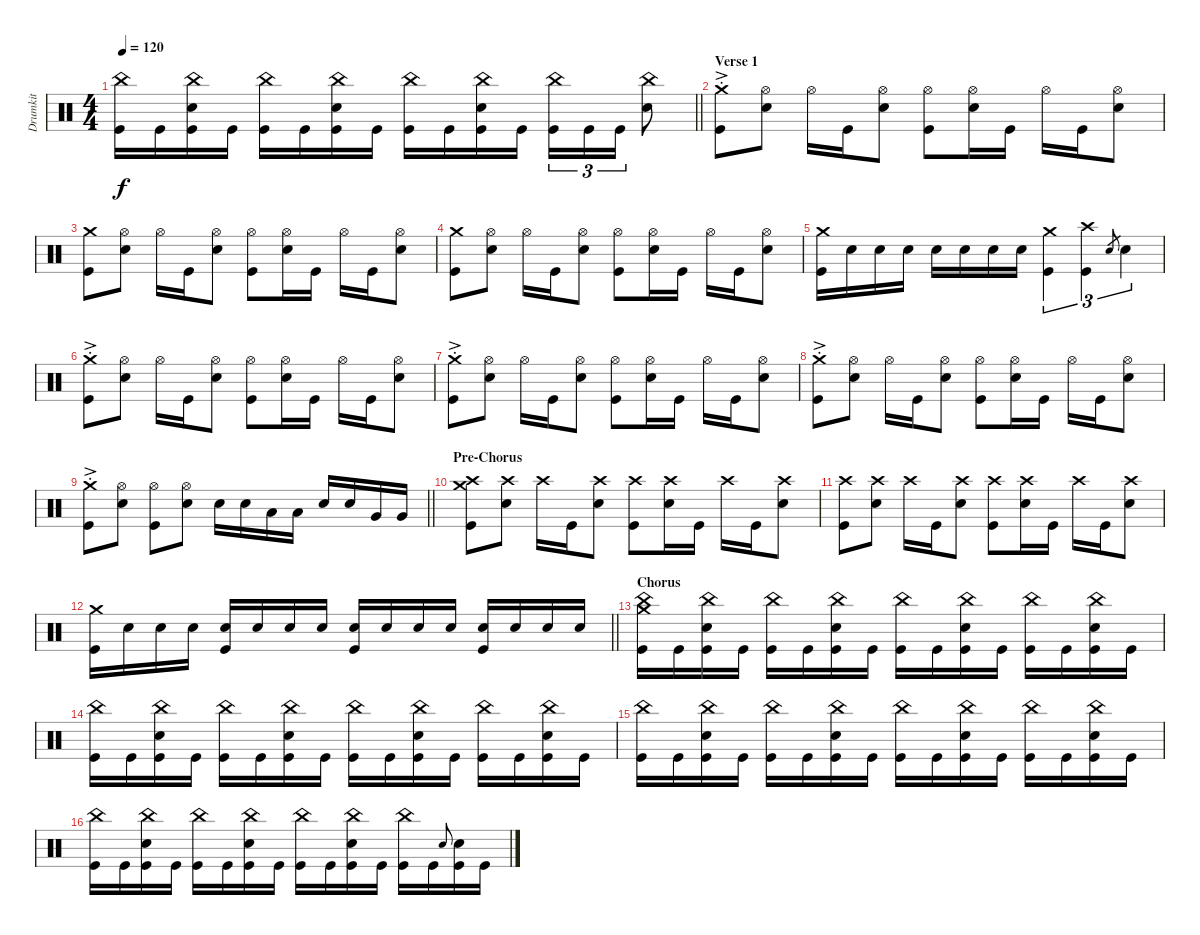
\track ("Drumkit" "Drumkit") {instrument percussion}
\staff {score}
\articulation defaults
\ts (4 4)
\tempo 120
\clef neutral
\barLineRight lightlight
\ks c
("China (hit)" "Kick (hit)").16{dy f} "Kick (hit)".16 ("Kick (hit)" "Snare (hit) 2" "China (hit)").16 "Kick (hit)".16 ("Kick (hit)" "China (hit)").16 "Kick (hit)".16 ("Kick (hit)" "Snare (hit) 2" "China (hit)").16 "Kick (hit)".16 ("Kick (hit)" "China (hit)").16 "Kick (hit)".16 ("Kick (hit)" "Snare (hit) 2" "China (hit)").16 "Kick (hit)".16 ("Kick (hit)" "China (hit)").16{tu (3 2)} "Kick (hit)".16{tu (3 2)} "Kick (hit)".16{tu (3 2)} ("Snare (hit) 2" "China (hit)").8 |
\section ("" "Verse 1")
("Crash medium (hit)"{ac st} "Kick (hit)").8 ("Snare (hit) 2" "Hi-Hat (open)").8 "Hi-Hat (open)".16 "Kick (hit)".16 ("Snare (hit) 2" "Hi-Hat (open)").8 ("Kick (hit)" "Hi-Hat (open)").8 ("Snare (hit) 2" "Hi-Hat (open)").16 "Kick (hit)".16 "Hi-Hat (open)".16 "Kick (hit)".16 ("Snare (hit) 2" "Hi-Hat (open)").8 |
("Crash medium (hit)" "Kick (hit)").8 ("Snare (hit) 2" "Hi-Hat (open)").8 "Hi-Hat (open)".16 "Kick (hit)".16 ("Snare (hit) 2" "Hi-Hat (open)").8 ("Kick (hit)" "Hi-Hat (open)").8 ("Snare (hit) 2" "Hi-Hat (open)").16 "Kick (hit)".16 "Hi-Hat (open)".16 "Kick (hit)".16 ("Snare (hit) 2" "Hi-Hat (open)").8 |
("Crash medium (hit)" "Kick (hit)").8 ("Snare (hit) 2" "Hi-Hat (open)").8 "Hi-Hat (open)".16 "Kick (hit)".16 ("Snare (hit) 2" "Hi-Hat (open)").8 ("Kick (hit)" "Hi-Hat (open)").8 ("Snare (hit) 2" "Hi-Hat (open)").16 "Kick (hit)".16 "Hi-Hat (open)".16 "Kick (hit)".16 ("Snare (hit) 2" "Hi-Hat (open)").8 |
("Crash medium (hit)" "Kick (hit)").16 "Snare (hit) 2".16 "Snare (hit) 2".16 "Snare (hit) 2".16 "Snare (hit) 2".16 "Snare (hit) 2".16 "Snare (hit) 2".16 "Snare (hit) 2".16 ("Crash medium (hit)" "Kick (hit)").4{tu (3 2)} ("Kick (hit)" "Crash high (hit)").4{tu (3 2)} "Snare (hit)".8{gr} "Snare (hit) 2".4{tu (3 2)} |
("Crash medium (hit)"{ac st} "Kick (hit)").8 ("Snare (hit) 2" "Hi-Hat (open)").8 "Hi-Hat (open)".16 "Kick (hit)".16 ("Snare (hit) 2" "Hi-Hat (open)").8 ("Kick (hit)" "Hi-Hat (open)").8 ("Snare (hit) 2" "Hi-Hat (open)").16 "Kick (hit)".16 "Hi-Hat (open)".16 "Kick (hit)".16 ("Snare (hit) 2" "Hi-Hat (open)").8 |
("Crash medium (hit)"{ac st} "Kick (hit)").8 ("Snare (hit) 2" "Hi-Hat (open)").8 "Hi-Hat (open)".16 "Kick (hit)".16 ("Snare (hit) 2" "Hi-Hat (open)").8 ("Kick (hit)" "Hi-Hat (open)").8 ("Snare (hit) 2" "Hi-Hat (open)").16 "Kick (hit)".16 "Hi-Hat (open)".16 "Kick (hit)".16 ("Snare (hit) 2" "Hi-Hat (open)").8 |
("Crash medium (hit)"{ac st} "Kick (hit)").8 ("Snare (hit) 2" "Hi-Hat (open)").8 "Hi-Hat (open)".16 "Kick (hit)".16 ("Snare (hit) 2" "Hi-Hat (open)").8 ("Kick (hit)" "Hi-Hat (open)").8 ("Snare (hit) 2" "Hi-Hat (open)").16 "Kick (hit)".16 "Hi-Hat (open)".16 "Kick (hit)".16 ("Snare (hit) 2" "Hi-Hat (open)").8 |
\barLineRight lightlight
("Crash medium (hit)"{ac st} "Kick (hit)").8 ("Snare (hit) 2" "Hi-Hat (open)").8 ("Kick (hit)" "Hi-Hat (open)").8 ("Snare (hit) 2" "Hi-Hat (open)").8 "Snare (hit) 2".16 "Snare (hit) 2".16 "Low Tom (hit)".16 "Low Tom (hit)".16 "Snare (hit) 2".16 "Snare (hit) 2".16 "Very Low Tom (hit)".16 "Very Low Tom (hit)".16 |
\section ("" "Pre-Chorus")
("Crash medium (hit)" "Kick (hit)" "Crash high (hit)").8 ("Snare (hit) 2" "Crash high (hit)").8 "Crash high (hit)".16 "Kick (hit)".16 ("Snare (hit) 2" "Crash high (hit)").8 ("Kick (hit)" "Crash high (hit)").8 ("Snare (hit) 2" "Crash high (hit)").16 "Kick (hit)".16 "Crash high (hit)".16 "Kick (hit)".16 ("Snare (hit) 2" "Crash high (hit)").8 |
("Kick (hit)" "Crash high (hit)").8 ("Snare (hit) 2" "Crash high (hit)").8 "Crash high (hit)".16 "Kick (hit)".16 ("Snare (hit) 2" "Crash high (hit)").8 ("Kick (hit)" "Crash high (hit)").8 ("Snare (hit) 2" "Crash high (hit)").16 "Kick (hit)".16 "Crash high (hit)".16 "Kick (hit)".16 ("Snare (hit) 2" "Crash high (hit)").8 |
\barLineRight lightlight
("Kick (hit)" "Crash medium (hit)").16 "Snare (hit) 2".16 "Snare (hit) 2".16 "Snare (hit) 2".16 ("Kick (hit)" "Snare (hit) 2").16 "Snare (hit) 2".16 "Snare (hit) 2".16 "Snare (hit) 2".16 ("Kick (hit)" "Snare (hit) 2").16 "Snare (hit) 2".16 "Snare (hit) 2".16 "Snare (hit) 2".16 ("Kick (hit)" "Snare (hit) 2").16 "Snare (hit) 2".16 "Snare (hit) 2".16 "Snare (hit) 2".16 |
\section ("" "Chorus")
("China (hit)" "Kick (hit)" "Crash medium (hit)").16 "Kick (hit)".16 ("Kick (hit)" "Snare (hit) 2" "China (hit)").16 "Kick (hit)".16 ("Kick (hit)" "China (hit)").16 "Kick (hit)".16 ("Kick (hit)" "Snare (hit) 2" "China (hit)").16 "Kick (hit)".16 ("Kick (hit)" "China (hit)").16 "Kick (hit)".16 ("Kick (hit)" "Snare (hit) 2" "China (hit)").16 "Kick (hit)".16 ("Kick (hit)" "China (hit)").16 "Kick (hit)".16 ("Kick (hit)" "Snare (hit) 2" "China (hit)").16 "Kick (hit)".16 |
("China (hit)" "Kick (hit)").16 "Kick (hit)".16 ("Kick (hit)" "Snare (hit) 2" "China (hit)").16 "Kick (hit)".16 ("Kick (hit)" "China (hit)").16 "Kick (hit)".16 ("Kick (hit)" "Snare (hit) 2" "China (hit)").16 "Kick (hit)".16 ("Kick (hit)" "China (hit)").16 "Kick (hit)".16 ("Kick (hit)" "Snare (hit) 2" "China (hit)").16 "Kick (hit)".16 ("Kick (hit)" "China (hit)").16 "Kick (hit)".16 ("Kick (hit)" "Snare (hit) 2" "China (hit)").16 "Kick (hit)".16 |
("China (hit)" "Kick (hit)").16 "Kick (hit)".16 ("Kick (hit)" "Snare (hit) 2" "China (hit)").16 "Kick (hit)".16 ("Kick (hit)" "China (hit)").16 "Kick (hit)".16 ("Kick (hit)" "Snare (hit) 2" "China (hit)").16 "Kick (hit)".16 ("Kick (hit)" "China (hit)").16 "Kick (hit)".16 ("Kick (hit)" "Snare (hit) 2" "China (hit)").16 "Kick (hit)".16 ("Kick (hit)" "China (hit)").16 "Kick (hit)".16 ("Kick (hit)" "Snare (hit) 2" "China (hit)").16 "Kick (hit)".16 |
("China (hit)" "Kick (hit)").16 "Kick (hit)".16 ("Kick (hit)" "Snare (hit) 2" "China (hit)").16 "Kick (hit)".16 ("Kick (hit)" "China (hit)").16 "Kick (hit)".16 ("Kick (hit)" "Snare (hit) 2" "China (hit)").16 "Kick (hit)".16 ("Kick (hit)" "China (hit)").16 "Kick (hit)".16 ("Kick (hit)" "Snare (hit) 2" "China (hit)").16 "Kick (hit)".16 ("Kick (hit)" "China (hit)").16 "Kick (hit)".16 "Snare (hit)".8{gr onbeat} ("Kick (hit)" "Snare (hit) 2").16 "Kick (hit)".16
